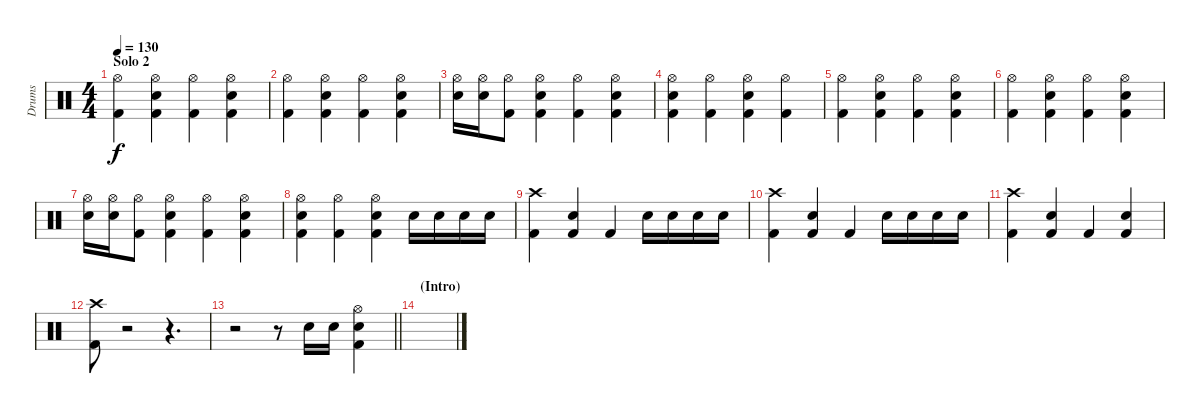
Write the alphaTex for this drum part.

\track ("Drums" "Drums") {instrument percussion}
\staff {score}
\articulation defaults
\ts (4 4)
\section ("" "Solo 2")
\tempo 130
\clef neutral
\ks c
("Hi-Hat (open)" "Kick (hit) 2").4{dy f} ("Hi-Hat (open)" "Snare (hit) 2" "Kick (hit) 2").4 ("Hi-Hat (open)" "Kick (hit) 2").4 ("Hi-Hat (open)" "Snare (hit) 2" "Kick (hit) 2").4 |
("Hi-Hat (open)" "Kick (hit) 2").4 ("Hi-Hat (open)" "Snare (hit) 2" "Kick (hit) 2").4 ("Hi-Hat (open)" "Kick (hit) 2").4 ("Hi-Hat (open)" "Snare (hit) 2" "Kick (hit) 2").4 |
("Hi-Hat (open)" "Snare (hit) 2").16 ("Hi-Hat (open)" "Snare (hit) 2").16 ("Hi-Hat (open)" "Kick (hit) 2").8 ("Hi-Hat (open)" "Snare (hit) 2" "Kick (hit) 2").4 ("Hi-Hat (open)" "Kick (hit) 2").4 ("Hi-Hat (open)" "Snare (hit) 2" "Kick (hit) 2").4 |
("Hi-Hat (open)" "Snare (hit) 2" "Kick (hit) 2").4 ("Hi-Hat (open)" "Kick (hit) 2").4 ("Hi-Hat (open)" "Snare (hit) 2" "Kick (hit) 2").4 ("Hi-Hat (open)" "Kick (hit) 2").4 |
("Hi-Hat (open)" "Kick (hit) 2").4 ("Hi-Hat (open)" "Snare (hit) 2" "Kick (hit) 2").4 ("Hi-Hat (open)" "Kick (hit) 2").4 ("Hi-Hat (open)" "Snare (hit) 2" "Kick (hit) 2").4 |
("Hi-Hat (open)" "Kick (hit) 2").4 ("Hi-Hat (open)" "Snare (hit) 2" "Kick (hit) 2").4 ("Hi-Hat (open)" "Kick (hit) 2").4 ("Hi-Hat (open)" "Snare (hit) 2" "Kick (hit) 2").4 |
("Hi-Hat (open)" "Snare (hit) 2").16 ("Hi-Hat (open)" "Snare (hit) 2").16 ("Hi-Hat (open)" "Kick (hit) 2").8 ("Hi-Hat (open)" "Snare (hit) 2" "Kick (hit) 2").4 ("Hi-Hat (open)" "Kick (hit) 2").4 ("Hi-Hat (open)" "Snare (hit) 2" "Kick (hit) 2").4 |
("Hi-Hat (open)" "Snare (hit) 2" "Kick (hit) 2").4 ("Hi-Hat (open)" "Kick (hit) 2").4 ("Hi-Hat (open)" "Snare (hit) 2" "Kick (hit) 2").4 "Snare (hit) 2".16 "Snare (hit) 2".16 "Snare (hit) 2".16 "Snare (hit) 2".16 |
("Crash high (hit)" "Kick (hit) 2").4 ("Snare (hit) 2" "Kick (hit) 2").4 "Kick (hit) 2".4 "Snare (hit) 2".16 "Snare (hit) 2".16 "Snare (hit) 2".16 "Snare (hit) 2".16 |
("Crash high (hit)" "Kick (hit) 2").4 ("Snare (hit) 2" "Kick (hit) 2").4 "Kick (hit) 2".4 "Snare (hit) 2".16 "Snare (hit) 2".16 "Snare (hit) 2".16 "Snare (hit) 2".16 |
("Crash high (hit)" "Kick (hit) 2").4 ("Snare (hit) 2" "Kick (hit) 2").4 "Kick (hit) 2".4 ("Snare (hit) 2" "Kick (hit) 2").4 |
("Crash high (hit)" "Kick (hit) 2").8 r.2 r.4{d} |
\barLineRight lightlight
r.2 r.8 "Snare (hit) 2".16 "Snare (hit) 2".16 ("Hi-Hat (open)" "Snare (hit) 2" "Kick (hit) 2").4 |
\section ("" "(Intro)")
